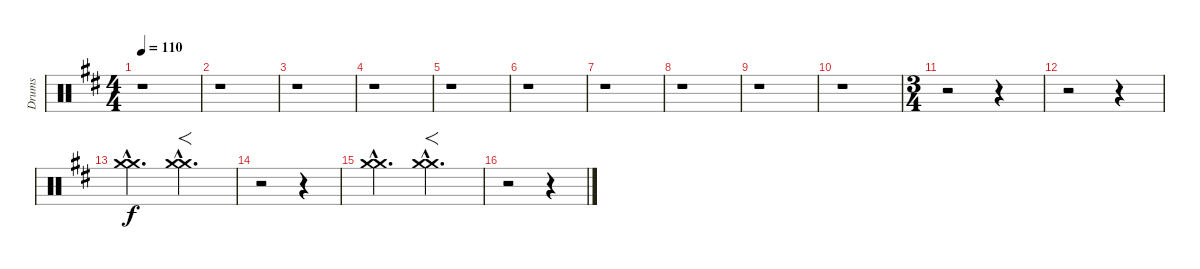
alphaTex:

\track ("Drums" "Drums") {instrument percussion}
\staff {score}
\articulation defaults
\ts (4 4)
\tempo 110
\clef neutral
\ks d
r.1{dy f} |
r.1 |
r.1 |
r.1 |
r.1 |
r.1 |
r.1 |
r.1 |
r.1 |
r.1 |
\ts (3 4)
r.2 r.4 |
r.2 r.4 |
("Crash medium (hit)"{hac} "Crash medium (hit)"{hac}).4{d} ("Crash medium (hit)"{hac} "Crash medium (hit)"{hac}).4{f d} |
r.2 r.4 |
("Crash medium (hit)"{hac} "Crash medium (hit)"{hac}).4{d} ("Crash medium (hit)"{hac} "Crash medium (hit)"{hac}).4{f d} |
r.2 r.4
